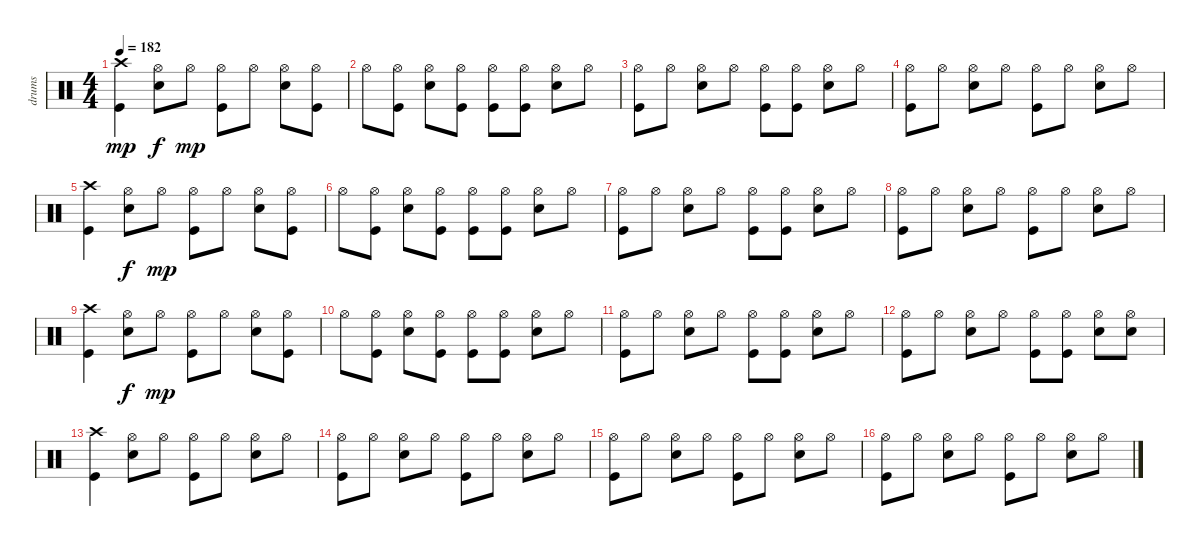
\track ("drums" "drums") {instrument percussion}
\staff {score}
\articulation defaults
\ts (4 4)
\tempo 182
\clef neutral
\ks c
("Kick (hit)" "Crash high (hit)").4{dy mp} ("Snare (hit) 2" "Hi-Hat (open)").8{dy f} "Hi-Hat (open)".8{dy mp} ("Kick (hit)" "Hi-Hat (open)").8 "Hi-Hat (open)".8 ("Snare (hit) 2" "Hi-Hat (open)").8 ("Kick (hit)" "Hi-Hat (open)").8 |
"Hi-Hat (open)".8 ("Kick (hit)" "Hi-Hat (open)").8 ("Snare (hit) 2" "Hi-Hat (open)").8 ("Kick (hit)" "Hi-Hat (open)").8 ("Kick (hit)" "Hi-Hat (open)").8 ("Kick (hit)" "Hi-Hat (open)").8 ("Snare (hit) 2" "Hi-Hat (open)").8 "Hi-Hat (open)".8 |
("Kick (hit)" "Hi-Hat (open)").8 "Hi-Hat (open)".8 ("Snare (hit) 2" "Hi-Hat (open)").8 "Hi-Hat (open)".8 ("Kick (hit)" "Hi-Hat (open)").8 ("Kick (hit)" "Hi-Hat (open)").8 ("Snare (hit) 2" "Hi-Hat (open)").8 "Hi-Hat (open)".8 |
("Kick (hit)" "Hi-Hat (open)").8 "Hi-Hat (open)".8 ("Snare (hit) 2" "Hi-Hat (open)").8 "Hi-Hat (open)".8 ("Kick (hit)" "Hi-Hat (open)").8 "Hi-Hat (open)".8 ("Snare (hit) 2" "Hi-Hat (open)").8 "Hi-Hat (open)".8 |
("Kick (hit)" "Crash high (hit)").4 ("Snare (hit) 2" "Hi-Hat (open)").8{dy f} "Hi-Hat (open)".8{dy mp} ("Kick (hit)" "Hi-Hat (open)").8 "Hi-Hat (open)".8 ("Snare (hit) 2" "Hi-Hat (open)").8 ("Kick (hit)" "Hi-Hat (open)").8 |
"Hi-Hat (open)".8 ("Kick (hit)" "Hi-Hat (open)").8 ("Snare (hit) 2" "Hi-Hat (open)").8 ("Kick (hit)" "Hi-Hat (open)").8 ("Kick (hit)" "Hi-Hat (open)").8 ("Kick (hit)" "Hi-Hat (open)").8 ("Snare (hit) 2" "Hi-Hat (open)").8 "Hi-Hat (open)".8 |
("Kick (hit)" "Hi-Hat (open)").8 "Hi-Hat (open)".8 ("Snare (hit) 2" "Hi-Hat (open)").8 "Hi-Hat (open)".8 ("Kick (hit)" "Hi-Hat (open)").8 ("Kick (hit)" "Hi-Hat (open)").8 ("Snare (hit) 2" "Hi-Hat (open)").8 "Hi-Hat (open)".8 |
("Kick (hit)" "Hi-Hat (open)").8 "Hi-Hat (open)".8 ("Snare (hit) 2" "Hi-Hat (open)").8 "Hi-Hat (open)".8 ("Kick (hit)" "Hi-Hat (open)").8 "Hi-Hat (open)".8 ("Snare (hit) 2" "Hi-Hat (open)").8 "Hi-Hat (open)".8 |
("Kick (hit)" "Crash high (hit)").4 ("Snare (hit) 2" "Hi-Hat (open)").8{dy f} "Hi-Hat (open)".8{dy mp} ("Kick (hit)" "Hi-Hat (open)").8 "Hi-Hat (open)".8 ("Snare (hit) 2" "Hi-Hat (open)").8 ("Kick (hit)" "Hi-Hat (open)").8 |
"Hi-Hat (open)".8 ("Kick (hit)" "Hi-Hat (open)").8 ("Snare (hit) 2" "Hi-Hat (open)").8 ("Kick (hit)" "Hi-Hat (open)").8 ("Kick (hit)" "Hi-Hat (open)").8 ("Kick (hit)" "Hi-Hat (open)").8 ("Snare (hit) 2" "Hi-Hat (open)").8 "Hi-Hat (open)".8 |
("Kick (hit)" "Hi-Hat (open)").8 "Hi-Hat (open)".8 ("Snare (hit) 2" "Hi-Hat (open)").8 "Hi-Hat (open)".8 ("Kick (hit)" "Hi-Hat (open)").8 ("Kick (hit)" "Hi-Hat (open)").8 ("Snare (hit) 2" "Hi-Hat (open)").8 "Hi-Hat (open)".8 |
("Kick (hit)" "Hi-Hat (open)").8 "Hi-Hat (open)".8 ("Snare (hit) 2" "Hi-Hat (open)").8 "Hi-Hat (open)".8 ("Kick (hit)" "Hi-Hat (open)").8 ("Kick (hit)" "Hi-Hat (open)").8 ("Snare (hit) 2" "Hi-Hat (open)").8 ("Snare (hit) 2" "Hi-Hat (open)").8 |
("Kick (hit)" "Crash high (hit)").4 ("Snare (hit) 2" "Hi-Hat (open)").8 "Hi-Hat (open)".8 ("Kick (hit)" "Hi-Hat (open)").8 "Hi-Hat (open)".8 ("Snare (hit) 2" "Hi-Hat (open)").8 "Hi-Hat (open)".8 |
("Kick (hit)" "Hi-Hat (open)").8 "Hi-Hat (open)".8 ("Snare (hit) 2" "Hi-Hat (open)").8 "Hi-Hat (open)".8 ("Kick (hit)" "Hi-Hat (open)").8 "Hi-Hat (open)".8 ("Snare (hit) 2" "Hi-Hat (open)").8 "Hi-Hat (open)".8 |
("Kick (hit)" "Hi-Hat (open)").8 "Hi-Hat (open)".8 ("Snare (hit) 2" "Hi-Hat (open)").8 "Hi-Hat (open)".8 ("Kick (hit)" "Hi-Hat (open)").8 "Hi-Hat (open)".8 ("Snare (hit) 2" "Hi-Hat (open)").8 "Hi-Hat (open)".8 |
("Kick (hit)" "Hi-Hat (open)").8 "Hi-Hat (open)".8 ("Snare (hit) 2" "Hi-Hat (open)").8 "Hi-Hat (open)".8 ("Kick (hit)" "Hi-Hat (open)").8 "Hi-Hat (open)".8 ("Snare (hit) 2" "Hi-Hat (open)").8 "Hi-Hat (open)".8
